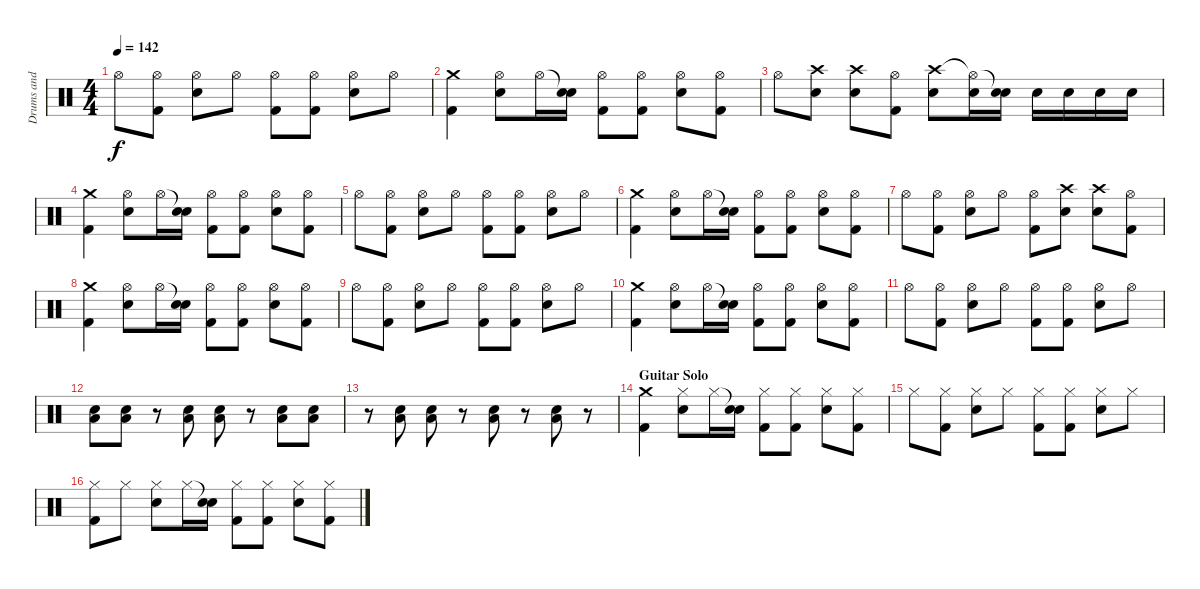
\track ("Drums and Percussion" "Drums and ") {instrument percussion}
\staff {score}
\articulation defaults
\ts (4 4)
\tempo 142
\clef neutral
\ks c "Hi-Hat (open)".8{dy f}
("Hi-Hat (open)" "Kick (hit) 2").8 ("Hi-Hat (open)" "Electric Snare (hit)").8 "Hi-Hat (open)".8 ("Hi-Hat (open)" "Kick (hit) 2").8 ("Hi-Hat (open)" "Kick (hit) 2").8 ("Hi-Hat (open)" "Electric Snare (hit)").8 "Hi-Hat (open)".8 |
("Crash medium (hit)" "Kick (hit) 2").4 ("Hi-Hat (open)" "Electric Snare (hit)").8 "Hi-Hat (open)".16 ("Snare (hit)"{t} "Electric Snare (hit)").16 ("Hi-Hat (open)" "Kick (hit) 2").8 ("Hi-Hat (open)" "Kick (hit) 2").8 ("Hi-Hat (open)" "Electric Snare (hit)").8 ("Hi-Hat (open)" "Kick (hit) 2").8 |
"Hi-Hat (open)".8 ("Crash high (hit)" "Electric Snare (hit)").8 ("Crash high (hit)" "Electric Snare (hit)").8 ("Hi-Hat (open)" "Kick (hit) 2").8 ("Crash high (hit)" "Electric Snare (hit)").8 ("Hi-Hat (open)"{t} "Electric Snare (hit)").16 ("Snare (hit)"{t} "Electric Snare (hit)").16 "Electric Snare (hit)".16 "Electric Snare (hit)".16 "Electric Snare (hit)".16 "Electric Snare (hit)".16 |
("Crash medium (hit)" "Kick (hit) 2").4 ("Hi-Hat (open)" "Electric Snare (hit)").8 "Hi-Hat (open)".16 ("Snare (hit)"{t} "Electric Snare (hit)").16 ("Hi-Hat (open)" "Kick (hit) 2").8 ("Hi-Hat (open)" "Kick (hit) 2").8 ("Hi-Hat (open)" "Electric Snare (hit)").8 ("Hi-Hat (open)" "Kick (hit) 2").8 |
"Hi-Hat (open)".8 ("Hi-Hat (open)" "Kick (hit) 2").8 ("Hi-Hat (open)" "Electric Snare (hit)").8 "Hi-Hat (open)".8 ("Hi-Hat (open)" "Kick (hit) 2").8 ("Hi-Hat (open)" "Kick (hit) 2").8 ("Hi-Hat (open)" "Electric Snare (hit)").8 "Hi-Hat (open)".8 |
("Crash medium (hit)" "Kick (hit) 2").4 ("Hi-Hat (open)" "Electric Snare (hit)").8 "Hi-Hat (open)".16 ("Snare (hit)"{t} "Electric Snare (hit)").16 ("Hi-Hat (open)" "Kick (hit) 2").8 ("Hi-Hat (open)" "Kick (hit) 2").8 ("Hi-Hat (open)" "Electric Snare (hit)").8 ("Hi-Hat (open)" "Kick (hit) 2").8 |
"Hi-Hat (open)".8 ("Hi-Hat (open)" "Kick (hit) 2").8 ("Hi-Hat (open)" "Electric Snare (hit)").8 "Hi-Hat (open)".8 ("Hi-Hat (open)" "Kick (hit) 2").8 ("Crash high (hit)" "Electric Snare (hit)").8 ("Crash high (hit)" "Electric Snare (hit)").8 ("Hi-Hat (open)" "Kick (hit) 2").8 |
("Crash medium (hit)" "Kick (hit) 2").4 ("Hi-Hat (open)" "Electric Snare (hit)").8 "Hi-Hat (open)".16 ("Snare (hit)"{t} "Electric Snare (hit)").16 ("Hi-Hat (open)" "Kick (hit) 2").8 ("Hi-Hat (open)" "Kick (hit) 2").8 ("Hi-Hat (open)" "Electric Snare (hit)").8 ("Hi-Hat (open)" "Kick (hit) 2").8 |
"Hi-Hat (open)".8 ("Hi-Hat (open)" "Kick (hit) 2").8 ("Hi-Hat (open)" "Electric Snare (hit)").8 "Hi-Hat (open)".8 ("Hi-Hat (open)" "Kick (hit) 2").8 ("Hi-Hat (open)" "Kick (hit) 2").8 ("Hi-Hat (open)" "Electric Snare (hit)").8 "Hi-Hat (open)".8 |
("Crash medium (hit)" "Kick (hit) 2").4 ("Hi-Hat (open)" "Electric Snare (hit)").8 "Hi-Hat (open)".16 ("Snare (hit)"{t} "Electric Snare (hit)").16 ("Hi-Hat (open)" "Kick (hit) 2").8 ("Hi-Hat (open)" "Kick (hit) 2").8 ("Hi-Hat (open)" "Electric Snare (hit)").8 ("Hi-Hat (open)" "Kick (hit) 2").8 |
"Hi-Hat (open)".8 ("Hi-Hat (open)" "Kick (hit) 2").8 ("Hi-Hat (open)" "Electric Snare (hit)").8 "Hi-Hat (open)".8 ("Hi-Hat (open)" "Kick (hit) 2").8 ("Hi-Hat (open)" "Kick (hit) 2").8 ("Hi-Hat (open)" "Electric Snare (hit)").8 "Hi-Hat (open)".8 |
("Electric Snare (hit)" "Low Floor Tom (hit)").8 ("Electric Snare (hit)" "Low Floor Tom (hit)").8 r.8 ("Electric Snare (hit)" "Low Floor Tom (hit)").8 ("Electric Snare (hit)" "Low Floor Tom (hit)").8 r.8 ("Electric Snare (hit)" "Low Floor Tom (hit)").8 ("Electric Snare (hit)" "Low Floor Tom (hit)").8 |
r.8 ("Electric Snare (hit)" "Low Floor Tom (hit)").8 ("Electric Snare (hit)" "Low Floor Tom (hit)").8 r.8 ("Electric Snare (hit)" "Low Floor Tom (hit)").8 r.8 ("Electric Snare (hit)" "Low Floor Tom (hit)").8 r.8 |
\section ("" "Guitar Solo")
("Crash medium (hit)" "Kick (hit) 2").4 ("Hi-Hat (closed)" "Electric Snare (hit)").8 "Hi-Hat (closed)".16 ("Snare (hit)"{t} "Electric Snare (hit)").16 ("Hi-Hat (closed)" "Kick (hit) 2").8 ("Hi-Hat (closed)" "Kick (hit) 2").8 ("Hi-Hat (closed)" "Electric Snare (hit)").8 ("Hi-Hat (closed)" "Kick (hit) 2").8 |
"Hi-Hat (closed)".8 ("Hi-Hat (closed)" "Kick (hit) 2").8 ("Hi-Hat (closed)" "Electric Snare (hit)").8 "Hi-Hat (closed)".8 ("Hi-Hat (closed)" "Kick (hit) 2").8 ("Hi-Hat (closed)" "Kick (hit) 2").8 ("Hi-Hat (closed)" "Electric Snare (hit)").8 "Hi-Hat (closed)".8 |
("Hi-Hat (closed)" "Kick (hit) 2").8 "Hi-Hat (closed)".8 ("Hi-Hat (closed)" "Electric Snare (hit)").8 "Hi-Hat (closed)".16 ("Snare (hit)"{t} "Electric Snare (hit)").16 ("Hi-Hat (closed)" "Kick (hit) 2").8 ("Hi-Hat (closed)" "Kick (hit) 2").8 ("Hi-Hat (closed)" "Electric Snare (hit)").8 ("Hi-Hat (closed)" "Kick (hit) 2").8
